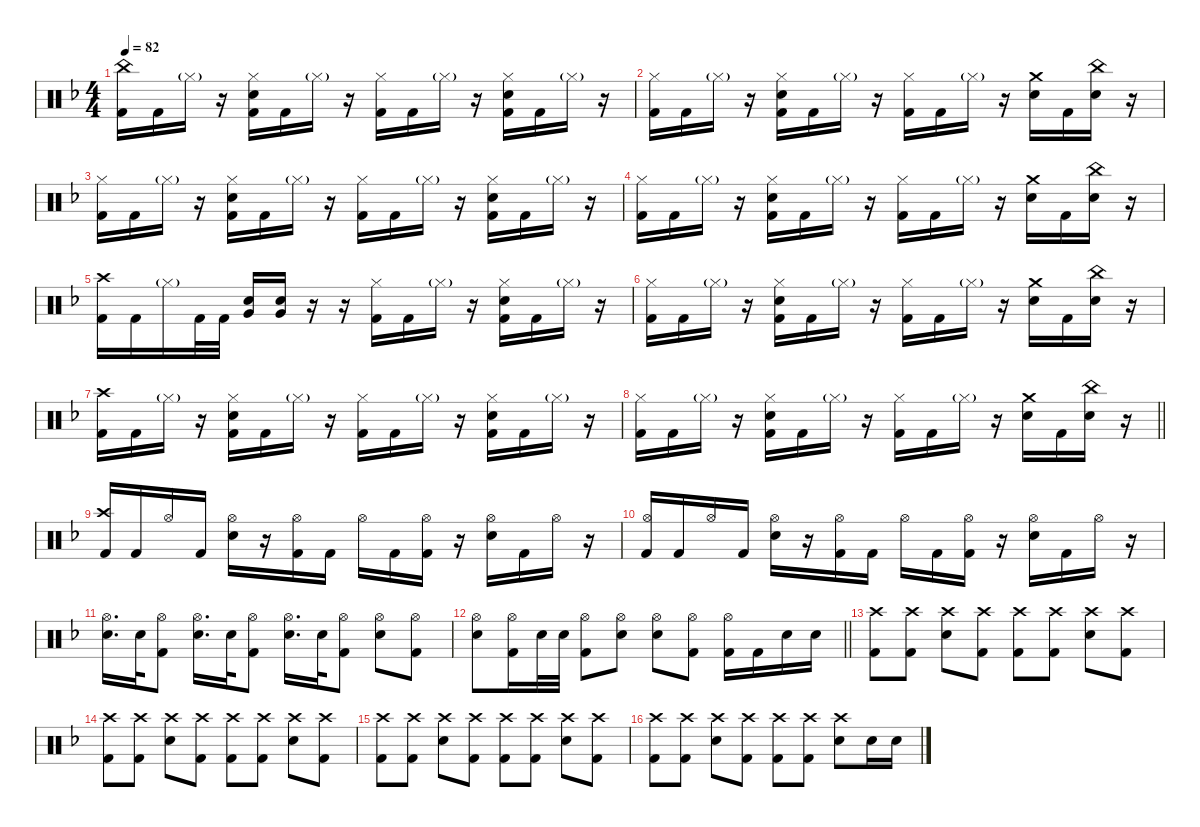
\defaultSystemsLayout 4
\hideDynamics
\bracketExtendMode nobrackets
\singleTrackTrackNamePolicy hidden
\multiTrackTrackNamePolicy hidden
\firstSystemTrackNameMode fullname
\firstSystemTrackNameOrientation horizontal
\otherSystemsTrackNameOrientation horizontal
\track ("Drums" "drm.") {defaultSystemsLayout 4 instrument percussion}
\staff {score}
\articulation defaults
\ts (4 4)
\tempo 82
\clef neutral
\ks dminor
("China (hit)"{acc forcenatural} "Kick (hit) 2"{acc forcenatural}).16{dy mf beam Down} "Kick (hit) 2"{acc forcenatural}.16{dy f beam Down} "Hi-Hat (closed)"{g acc forcenatural}.16{dy mf beam Down} r.16{beam Down} ("Hi-Hat (closed)"{acc forcenatural} "Snare (hit) 2"{acc forcenatural} "Kick (hit) 2"{acc forcenatural}).16{dy f beam Down} "Kick (hit) 2"{acc forcenatural}.16{beam Down} "Hi-Hat (closed)"{g acc forcenatural}.16{dy mf beam Down} r.16{beam Down} ("Hi-Hat (closed)"{acc forcenatural} "Kick (hit) 2"{acc forcenatural}).16{dy f beam Down} "Kick (hit) 2"{acc forcenatural}.16{beam Down} "Hi-Hat (closed)"{g acc forcenatural}.16{dy mf beam Down} r.16{beam Down} ("Hi-Hat (closed)"{acc forcenatural} "Snare (hit) 2"{acc forcenatural} "Kick (hit) 2"{acc forcenatural}).16{dy f beam Down} "Kick (hit) 2"{acc forcenatural}.16{beam Down} "Hi-Hat (closed)"{g acc forcenatural}.16{dy mf beam Down} r.16{beam Down} |
("Hi-Hat (closed)"{acc forcenatural} "Kick (hit) 2"{acc forcenatural}).16{dy f beam Down} "Kick (hit) 2"{acc forcenatural}.16{beam Down} "Hi-Hat (closed)"{g acc forcenatural}.16{dy mf beam Down} r.16{beam Down} ("Hi-Hat (closed)"{acc forcenatural} "Snare (hit) 2"{acc forcenatural} "Kick (hit) 2"{acc forcenatural}).16{dy f beam Down} "Kick (hit) 2"{acc forcenatural}.16{beam Down} "Hi-Hat (closed)"{g acc forcenatural}.16{dy mf beam Down} r.16{beam Down} ("Hi-Hat (closed)"{acc forcenatural} "Kick (hit) 2"{acc forcenatural}).16{dy f beam Down} "Kick (hit) 2"{acc forcenatural}.16{beam Down} "Hi-Hat (closed)"{g acc forcenatural}.16{dy mf beam Down} r.16{beam Down} ("Crash medium (hit)"{acc forcenatural} "Snare (hit) 2"{acc forcenatural}).16{dy f beam Down} "Kick (hit) 2"{acc forcenatural}.16{beam Down} ("China (hit)"{acc forcenatural} "Snare (hit) 2"{acc forcenatural}).16{beam Down} r.16{beam Down} |
("Hi-Hat (closed)"{acc forcenatural} "Kick (hit) 2"{acc forcenatural}).16{beam Down} "Kick (hit) 2"{acc forcenatural}.16{beam Down} "Hi-Hat (closed)"{g acc forcenatural}.16{dy mf beam Down} r.16{beam Down} ("Hi-Hat (closed)"{acc forcenatural} "Snare (hit) 2"{acc forcenatural} "Kick (hit) 2"{acc forcenatural}).16{dy f beam Down} "Kick (hit) 2"{acc forcenatural}.16{beam Down} "Hi-Hat (closed)"{g acc forcenatural}.16{dy mf beam Down} r.16{beam Down} ("Hi-Hat (closed)"{acc forcenatural} "Kick (hit) 2"{acc forcenatural}).16{dy f beam Down} "Kick (hit) 2"{acc forcenatural}.16{beam Down} "Hi-Hat (closed)"{g acc forcenatural}.16{dy mf beam Down} r.16{beam Down} ("Hi-Hat (closed)"{acc forcenatural} "Snare (hit) 2"{acc forcenatural} "Kick (hit) 2"{acc forcenatural}).16{dy f beam Down} "Kick (hit) 2"{acc forcenatural}.16{beam Down} "Hi-Hat (closed)"{g acc forcenatural}.16{dy mf beam Down} r.16{beam Down} |
("Hi-Hat (closed)"{acc forcenatural} "Kick (hit) 2"{acc forcenatural}).16{dy f beam Down} "Kick (hit) 2"{acc forcenatural}.16{beam Down} "Hi-Hat (closed)"{g acc forcenatural}.16{dy mf beam Down} r.16{beam Down} ("Hi-Hat (closed)"{acc forcenatural} "Snare (hit) 2"{acc forcenatural} "Kick (hit) 2"{acc forcenatural}).16{dy f beam Down} "Kick (hit) 2"{acc forcenatural}.16{beam Down} "Hi-Hat (closed)"{g acc forcenatural}.16{dy mf beam Down} r.16{beam Down} ("Hi-Hat (closed)"{acc forcenatural} "Kick (hit) 2"{acc forcenatural}).16{dy f beam Down} "Kick (hit) 2"{acc forcenatural}.16{beam Down} "Hi-Hat (closed)"{g acc forcenatural}.16{dy mf beam Down} r.16{beam Down} ("Crash medium (hit)"{acc forcenatural} "Snare (hit) 2"{acc forcenatural}).16{dy f beam Down} "Kick (hit) 2"{acc forcenatural}.16{beam Down} ("China (hit)"{acc forcenatural} "Snare (hit) 2"{acc forcenatural}).16{beam Down} r.16{beam Down} |
("Crash high (hit)"{acc forcenatural} "Kick (hit) 2"{acc forcenatural}).16{beam Down} "Kick (hit) 2"{acc forcenatural}.16{beam Down} "Hi-Hat (closed)"{g acc forcenatural}.16{dy mf beam Down} "Kick (hit) 2"{acc forcenatural}.32{dy f beam Down} "Kick (hit) 2"{acc forcenatural}.32{beam Down} ("Snare (hit) 2"{acc forcenatural} "Very Low Tom (hit)"{acc forcenatural}).16{beam Up} ("Snare (hit) 2"{acc forcenatural} "Very Low Tom (hit)"{acc forcenatural}).16{beam Up} r.16{beam Up} r.16{beam Up} ("Hi-Hat (closed)"{acc forcenatural} "Kick (hit) 2"{acc forcenatural}).16{beam Down} "Kick (hit) 2"{acc forcenatural}.16{beam Down} "Hi-Hat (closed)"{g acc forcenatural}.16{dy mf beam Down} r.16{beam Down} ("Hi-Hat (closed)"{acc forcenatural} "Snare (hit) 2"{acc forcenatural} "Kick (hit) 2"{acc forcenatural}).16{dy f beam Down} "Kick (hit) 2"{acc forcenatural}.16{beam Down} "Hi-Hat (closed)"{g acc forcenatural}.16{dy mf beam Down} r.16{beam Down} |
("Hi-Hat (closed)"{acc forcenatural} "Kick (hit) 2"{acc forcenatural}).16{dy f beam Down} "Kick (hit) 2"{acc forcenatural}.16{beam Down} "Hi-Hat (closed)"{g acc forcenatural}.16{dy mf beam Down} r.16{beam Down} ("Hi-Hat (closed)"{acc forcenatural} "Snare (hit) 2"{acc forcenatural} "Kick (hit) 2"{acc forcenatural}).16{dy f beam Down} "Kick (hit) 2"{acc forcenatural}.16{beam Down} "Hi-Hat (closed)"{g acc forcenatural}.16{dy mf beam Down} r.16{beam Down} ("Hi-Hat (closed)"{acc forcenatural} "Kick (hit) 2"{acc forcenatural}).16{dy f beam Down} "Kick (hit) 2"{acc forcenatural}.16{beam Down} "Hi-Hat (closed)"{g acc forcenatural}.16{dy mf beam Down} r.16{beam Down} ("Crash medium (hit)"{acc forcenatural} "Snare (hit) 2"{acc forcenatural}).16{dy f beam Down} "Kick (hit) 2"{acc forcenatural}.16{beam Down} ("China (hit)"{acc forcenatural} "Snare (hit) 2"{acc forcenatural}).16{beam Down} r.16{beam Down} |
("Crash high (hit)"{acc forcenatural} "Kick (hit) 2"{acc forcenatural}).16{beam Down} "Kick (hit) 2"{acc forcenatural}.16{beam Down} "Hi-Hat (closed)"{g acc forcenatural}.16{dy mf beam Down} r.16{beam Down} ("Hi-Hat (closed)"{acc forcenatural} "Snare (hit) 2"{acc forcenatural} "Kick (hit) 2"{acc forcenatural}).16{dy f beam Down} "Kick (hit) 2"{acc forcenatural}.16{beam Down} "Hi-Hat (closed)"{g acc forcenatural}.16{dy mf beam Down} r.16{beam Down} ("Hi-Hat (closed)"{acc forcenatural} "Kick (hit) 2"{acc forcenatural}).16{dy f beam Down} "Kick (hit) 2"{acc forcenatural}.16{beam Down} "Hi-Hat (closed)"{g acc forcenatural}.16{dy mf beam Down} r.16{beam Down} ("Hi-Hat (closed)"{acc forcenatural} "Snare (hit) 2"{acc forcenatural} "Kick (hit) 2"{acc forcenatural}).16{dy f beam Down} "Kick (hit) 2"{acc forcenatural}.16{beam Down} "Hi-Hat (closed)"{g acc forcenatural}.16{dy mf beam Down} r.16{beam Down} |
\barLineRight lightlight
("Hi-Hat (closed)"{acc forcenatural} "Kick (hit) 2"{acc forcenatural}).16{dy f beam Down} "Kick (hit) 2"{acc forcenatural}.16{beam Down} "Hi-Hat (closed)"{g acc forcenatural}.16{dy mf beam Down} r.16{beam Down} ("Hi-Hat (closed)"{acc forcenatural} "Snare (hit) 2"{acc forcenatural} "Kick (hit) 2"{acc forcenatural}).16{dy f beam Down} "Kick (hit) 2"{acc forcenatural}.16{beam Down} "Hi-Hat (closed)"{g acc forcenatural}.16{dy mf beam Down} r.16{beam Down} ("Hi-Hat (closed)"{acc forcenatural} "Kick (hit) 2"{acc forcenatural}).16{dy f beam Down} "Kick (hit) 2"{acc forcenatural}.16{beam Down} "Hi-Hat (closed)"{g acc forcenatural}.16{dy mf beam Down} r.16{beam Down} ("Crash medium (hit)"{acc forcenatural} "Snare (hit) 2"{acc forcenatural}).16{dy f beam Down} "Kick (hit) 2"{acc forcenatural}.16{beam Down} ("China (hit)"{acc forcenatural} "Snare (hit) 2"{acc forcenatural}).16{beam Down} r.16{beam Down} |
("Crash high (hit)"{acc forcenatural} "Kick (hit) 2"{acc forcenatural}).16{beam Up} "Kick (hit) 2"{acc forcenatural}.16{beam Up} "Hi-Hat (open)"{acc forcenatural}.16{dy mp beam Up} "Kick (hit) 2"{acc forcenatural}.16{dy f beam Up} ("Hi-Hat (open)"{acc forcenatural} "Snare (hit) 2"{acc forcenatural}).16{dy mp beam Down} r.16{beam Down} ("Hi-Hat (open)"{acc forcenatural} "Kick (hit) 2"{acc forcenatural}).16{beam Down} "Kick (hit) 2"{acc forcenatural}.16{dy f beam Down} "Hi-Hat (open)"{acc forcenatural}.16{dy mp beam Down} "Kick (hit) 2"{acc forcenatural}.16{dy f beam Down} ("Hi-Hat (open)"{acc forcenatural} "Kick (hit) 2"{acc forcenatural}).16{dy mp beam Down} r.16{beam Down} ("Hi-Hat (open)"{acc forcenatural} "Snare (hit) 2"{acc forcenatural}).16{beam Down} "Kick (hit) 2"{acc forcenatural}.16{dy f beam Down} "Hi-Hat (open)"{acc forcenatural}.16{dy mp beam Down} r.16{beam Down} |
("Hi-Hat (open)"{acc forcenatural} "Kick (hit) 2"{acc forcenatural}).16{beam Up} "Kick (hit) 2"{acc forcenatural}.16{dy f beam Up} "Hi-Hat (open)"{acc forcenatural}.16{dy mp beam Up} "Kick (hit) 2"{acc forcenatural}.16{dy f beam Up} ("Hi-Hat (open)"{acc forcenatural} "Snare (hit) 2"{acc forcenatural}).16{dy mp beam Down} r.16{beam Down} ("Hi-Hat (open)"{acc forcenatural} "Kick (hit) 2"{acc forcenatural}).16{beam Down} "Kick (hit) 2"{acc forcenatural}.16{dy f beam Down} "Hi-Hat (open)"{acc forcenatural}.16{dy mp beam Down} "Kick (hit) 2"{acc forcenatural}.16{dy f beam Down} ("Hi-Hat (open)"{acc forcenatural} "Kick (hit) 2"{acc forcenatural}).16{dy mp beam Down} r.16{beam Down} ("Hi-Hat (open)"{acc forcenatural} "Snare (hit) 2"{acc forcenatural}).16{beam Down} "Kick (hit) 2"{acc forcenatural}.16{dy f beam Down} "Hi-Hat (open)"{acc forcenatural}.16{dy mp beam Down} r.16{beam Down} |
("Hi-Hat (open)"{acc forcenatural} "Snare (hit) 2"{acc forcenatural}).16{d beam Down} "Snare (hit) 2"{acc forcenatural}.32{dy f beam Down} ("Hi-Hat (open)"{acc forcenatural} "Kick (hit) 2"{acc forcenatural}).8{dy mp beam Down} ("Hi-Hat (open)"{acc forcenatural} "Snare (hit) 2"{acc forcenatural}).16{d beam Down} "Snare (hit) 2"{acc forcenatural}.32{dy f beam Down} ("Hi-Hat (open)"{acc forcenatural} "Kick (hit) 2"{acc forcenatural}).8{dy mp beam Down} ("Hi-Hat (open)"{acc forcenatural} "Snare (hit) 2"{acc forcenatural}).16{d beam Down} "Snare (hit) 2"{acc forcenatural}.32{dy f beam Down} ("Hi-Hat (open)"{acc forcenatural} "Kick (hit) 2"{acc forcenatural}).8{dy mp beam Down} ("Hi-Hat (open)"{acc forcenatural} "Snare (hit) 2"{acc forcenatural}).8{beam Down} ("Hi-Hat (open)"{acc forcenatural} "Kick (hit) 2"{acc forcenatural}).8{beam Down} |
\barLineRight lightlight
("Hi-Hat (open)"{acc forcenatural} "Snare (hit) 2"{acc forcenatural}).8{beam Down} ("Hi-Hat (open)"{acc forcenatural} "Kick (hit) 2"{acc forcenatural}).16{beam Down} "Snare (hit) 2"{acc forcenatural}.32{dy f beam Down} "Snare (hit) 2"{acc forcenatural}.32{beam Down} ("Hi-Hat (open)"{acc forcenatural} "Kick (hit) 2"{acc forcenatural}).8{dy mp beam Down} ("Hi-Hat (open)"{acc forcenatural} "Snare (hit) 2"{acc forcenatural}).8{beam Down} ("Hi-Hat (open)"{acc forcenatural} "Snare (hit) 2"{acc forcenatural}).8{beam Down} ("Hi-Hat (open)"{acc forcenatural} "Kick (hit) 2"{acc forcenatural}).8{beam Down} ("Hi-Hat (open)"{acc forcenatural} "Kick (hit) 2"{acc forcenatural}).16{beam Down} "Kick (hit) 2"{acc forcenatural}.16{dy f beam Down} "Snare (hit) 2"{acc forcenatural}.16{beam Down} "Snare (hit) 2"{acc forcenatural}.16{beam Down} |
("Crash high (hit)"{acc forcenatural} "Kick (hit) 2"{acc forcenatural}).8{beam Down} ("Crash high (hit)"{acc forcenatural} "Kick (hit) 2"{acc forcenatural}).8{beam Down} ("Crash high (hit)"{acc forcenatural} "Snare (hit) 2"{acc forcenatural}).8{beam Down} ("Crash high (hit)"{acc forcenatural} "Kick (hit) 2"{acc forcenatural}).8{beam Down} ("Crash high (hit)"{acc forcenatural} "Kick (hit) 2"{acc forcenatural}).8{beam Down} ("Crash high (hit)"{acc forcenatural} "Kick (hit) 2"{acc forcenatural}).8{beam Down} ("Crash high (hit)"{acc forcenatural} "Snare (hit) 2"{acc forcenatural}).8{beam Down} ("Crash high (hit)"{acc forcenatural} "Kick (hit) 2"{acc forcenatural}).8{beam Down} |
("Crash high (hit)"{acc forcenatural} "Kick (hit) 2"{acc forcenatural}).8{beam Down} ("Crash high (hit)"{acc forcenatural} "Kick (hit) 2"{acc forcenatural}).8{beam Down} ("Crash high (hit)"{acc forcenatural} "Snare (hit) 2"{acc forcenatural}).8{beam Down} ("Crash high (hit)"{acc forcenatural} "Kick (hit) 2"{acc forcenatural}).8{beam Down} ("Crash high (hit)"{acc forcenatural} "Kick (hit) 2"{acc forcenatural}).8{beam Down} ("Crash high (hit)"{acc forcenatural} "Kick (hit) 2"{acc forcenatural}).8{beam Down} ("Crash high (hit)"{acc forcenatural} "Snare (hit) 2"{acc forcenatural}).8{beam Down} ("Crash high (hit)"{acc forcenatural} "Kick (hit) 2"{acc forcenatural}).8{beam Down} |
("Crash high (hit)"{acc forcenatural} "Kick (hit) 2"{acc forcenatural}).8{beam Down} ("Crash high (hit)"{acc forcenatural} "Kick (hit) 2"{acc forcenatural}).8{beam Down} ("Crash high (hit)"{acc forcenatural} "Snare (hit) 2"{acc forcenatural}).8{beam Down} ("Crash high (hit)"{acc forcenatural} "Kick (hit) 2"{acc forcenatural}).8{beam Down} ("Crash high (hit)"{acc forcenatural} "Kick (hit) 2"{acc forcenatural}).8{beam Down} ("Crash high (hit)"{acc forcenatural} "Kick (hit) 2"{acc forcenatural}).8{beam Down} ("Crash high (hit)"{acc forcenatural} "Snare (hit) 2"{acc forcenatural}).8{beam Down} ("Crash high (hit)"{acc forcenatural} "Kick (hit) 2"{acc forcenatural}).8{beam Down} |
("Crash high (hit)"{acc forcenatural} "Kick (hit) 2"{acc forcenatural}).8{beam Down} ("Crash high (hit)"{acc forcenatural} "Kick (hit) 2"{acc forcenatural}).8{beam Down} ("Crash high (hit)"{acc forcenatural} "Snare (hit) 2"{acc forcenatural}).8{beam Down} ("Crash high (hit)"{acc forcenatural} "Kick (hit) 2"{acc forcenatural}).8{beam Down} ("Crash high (hit)"{acc forcenatural} "Kick (hit) 2"{acc forcenatural}).8{beam Down} ("Crash high (hit)"{acc forcenatural} "Kick (hit) 2"{acc forcenatural}).8{beam Down} ("Crash high (hit)"{acc forcenatural} "Snare (hit) 2"{acc forcenatural}).8{beam Down} "Snare (hit) 2"{acc forcenatural}.16{beam Down} "Snare (hit) 2"{acc forcenatural}.16{beam Down}
